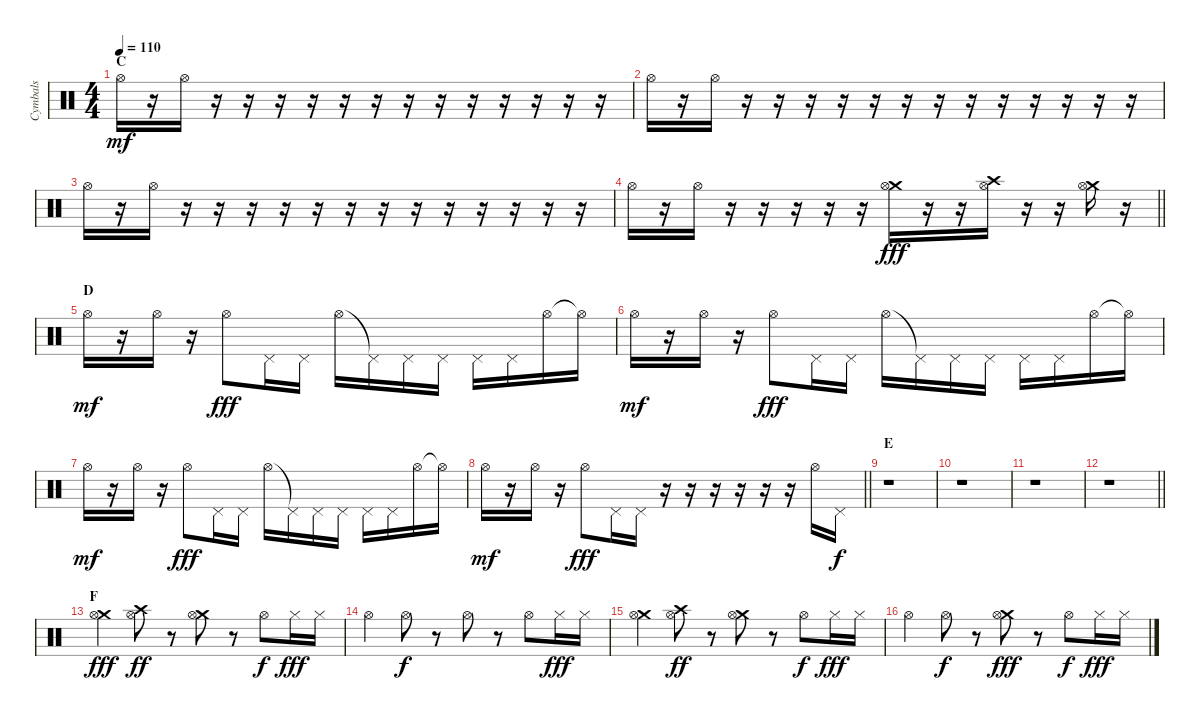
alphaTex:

\track ("Cymbals" "Cymbals") {instrument percussion}
\staff {score}
\articulation defaults
\ts (4 4)
\section ("" "C")
\tempo 110
\clef neutral
\ks c "Hi-Hat (open)".16{dy mf}
r.16 "Hi-Hat (open)".16 r.16 r.16 r.16 r.16 r.16 r.16 r.16 r.16 r.16 r.16 r.16 r.16 r.16 |
"Hi-Hat (open)".16 r.16 "Hi-Hat (open)".16 r.16 r.16 r.16 r.16 r.16 r.16 r.16 r.16 r.16 r.16 r.16 r.16 r.16 |
"Hi-Hat (open)".16 r.16 "Hi-Hat (open)".16 r.16 r.16 r.16 r.16 r.16 r.16 r.16 r.16 r.16 r.16 r.16 r.16 r.16 |
\barLineRight lightlight "Hi-Hat (open)".16
r.16 "Hi-Hat (open)".16 r.16 r.16 r.16 r.16 r.16 ("Crash medium (hit)" "Hi-Hat (open)").16{dy fff} r.16 r.16 ("Crash high (hit)" "Hi-Hat (open)").16 r.16 r.16 ("Crash medium (hit)" "Hi-Hat (open)").16 r.16 |
\section ("" "D")
"Hi-Hat (open)".16{dy mf} r.16 "Hi-Hat (open)".16 r.16 "Hi-Hat (open)".8{dy fff} "Pedal Hi-Hat (hit)".16 "Pedal Hi-Hat (hit)".16 "Hi-Hat (open)".16 "Pedal Hi-Hat (hit)"{t}.16 "Pedal Hi-Hat (hit)".16 "Pedal Hi-Hat (hit)".16 "Pedal Hi-Hat (hit)".16 "Pedal Hi-Hat (hit)".16 "Hi-Hat (open)".16 "Hi-Hat (open)"{t}.16 |
"Hi-Hat (open)".16{dy mf} r.16 "Hi-Hat (open)".16 r.16 "Hi-Hat (open)".8{dy fff} "Pedal Hi-Hat (hit)".16 "Pedal Hi-Hat (hit)".16 "Hi-Hat (open)".16 "Pedal Hi-Hat (hit)"{t}.16 "Pedal Hi-Hat (hit)".16 "Pedal Hi-Hat (hit)".16 "Pedal Hi-Hat (hit)".16 "Pedal Hi-Hat (hit)".16 "Hi-Hat (open)".16 "Hi-Hat (open)"{t}.16 |
"Hi-Hat (open)".16{dy mf} r.16 "Hi-Hat (open)".16 r.16 "Hi-Hat (open)".8{dy fff} "Pedal Hi-Hat (hit)".16 "Pedal Hi-Hat (hit)".16 "Hi-Hat (open)".16 "Pedal Hi-Hat (hit)"{t}.16 "Pedal Hi-Hat (hit)".16 "Pedal Hi-Hat (hit)".16 "Pedal Hi-Hat (hit)".16 "Pedal Hi-Hat (hit)".16 "Hi-Hat (open)".16 "Hi-Hat (open)"{t}.16 |
\barLineRight lightlight "Hi-Hat (open)".16{dy mf}
r.16 "Hi-Hat (open)".16 r.16 "Hi-Hat (open)".8{dy fff} "Pedal Hi-Hat (hit)".16 "Pedal Hi-Hat (hit)".16 r.16 r.16 r.16 r.16 r.16 r.16 "Hi-Hat (open)".16 "Pedal Hi-Hat (hit)".16{dy f} |
\section ("" "E")
r.1 |
r.1 |
r.1 |
\barLineRight lightlight
r.1 |
\section ("" "F")
("Crash medium (hit)" "Hi-Hat (open)").4{dy fff} ("Crash high (hit)" "Hi-Hat (open)").8{dy ff} r.8 ("Crash medium (hit)" "Hi-Hat (open)").8 r.8 "Hi-Hat (open)".8{dy f} "Hi-Hat (closed)".16{dy fff} "Hi-Hat (closed)".16 |
"Hi-Hat (open)".4 "Hi-Hat (open)".8{dy f} r.8 "Hi-Hat (open)".8 r.8 "Hi-Hat (open)".8 "Hi-Hat (closed)".16{dy fff} "Hi-Hat (closed)".16 |
("Crash medium (hit)" "Hi-Hat (open)").4 ("Crash high (hit)" "Hi-Hat (open)").8{dy ff} r.8 ("Crash medium (hit)" "Hi-Hat (open)").8 r.8 "Hi-Hat (open)".8{dy f} "Hi-Hat (closed)".16{dy fff} "Hi-Hat (closed)".16 |
"Hi-Hat (open)".4 "Hi-Hat (open)".8{dy f} r.8 ("Crash medium (hit)" "Hi-Hat (open)").8{dy fff} r.8 "Hi-Hat (open)".8{dy f} "Hi-Hat (closed)".16{dy fff} "Hi-Hat (closed)".16
